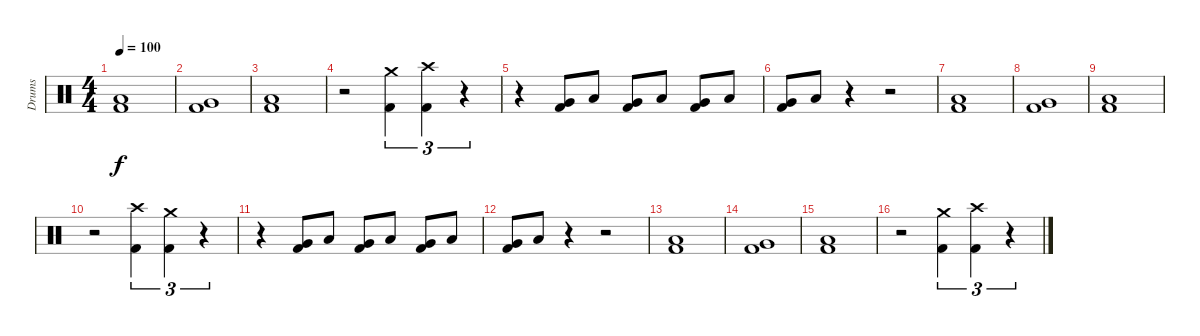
\track ("Drums" "Drums") {instrument percussion}
\staff {score}
\articulation defaults
\ts (4 4)
\tempo 100
\clef neutral
\ks c
("Kick (hit) 2" "Low Floor Tom (hit)").1{dy f} |
("Kick (hit) 2" "Very Low Tom (hit)").1 |
("Kick (hit) 2" "Low Tom (hit)").1 |
r.2 ("Kick (hit) 2" "Crash medium (hit)").4{tu (3 2)} ("Kick (hit) 2" "Crash high (hit)").4{tu (3 2)} r.4{tu (3 2)} |
r.4 ("Kick (hit) 2" "Very Low Tom (hit)").8 "Low Tom (hit)".8 ("Kick (hit) 2" "Very Low Tom (hit)").8 "Low Tom (hit)".8 ("Kick (hit) 2" "Very Low Tom (hit)").8 "Low Tom (hit)".8 |
("Kick (hit) 2" "Very Low Tom (hit)").8 "Low Tom (hit)".8 r.4 r.2 |
("Kick (hit) 2" "Low Floor Tom (hit)").1 |
("Kick (hit) 2" "Very Low Tom (hit)").1 |
("Kick (hit) 2" "Low Tom (hit)").1 |
r.2 ("Kick (hit) 2" "Crash high (hit)").4{tu (3 2)} ("Kick (hit) 2" "Crash medium (hit)").4{tu (3 2)} r.4{tu (3 2)} |
r.4 ("Kick (hit) 2" "Very Low Tom (hit)").8 "Low Tom (hit)".8 ("Kick (hit) 2" "Very Low Tom (hit)").8 "Low Tom (hit)".8 ("Kick (hit) 2" "Very Low Tom (hit)").8 "Low Tom (hit)".8 |
("Kick (hit) 2" "Very Low Tom (hit)").8 "Low Tom (hit)".8 r.4 r.2 |
("Kick (hit) 2" "Low Floor Tom (hit)").1 |
("Kick (hit) 2" "Very Low Tom (hit)").1 |
("Kick (hit) 2" "Low Tom (hit)").1 |
r.2 ("Kick (hit) 2" "Crash medium (hit)").4{tu (3 2)} ("Kick (hit) 2" "Crash high (hit)").4{tu (3 2)} r.4{tu (3 2)}
